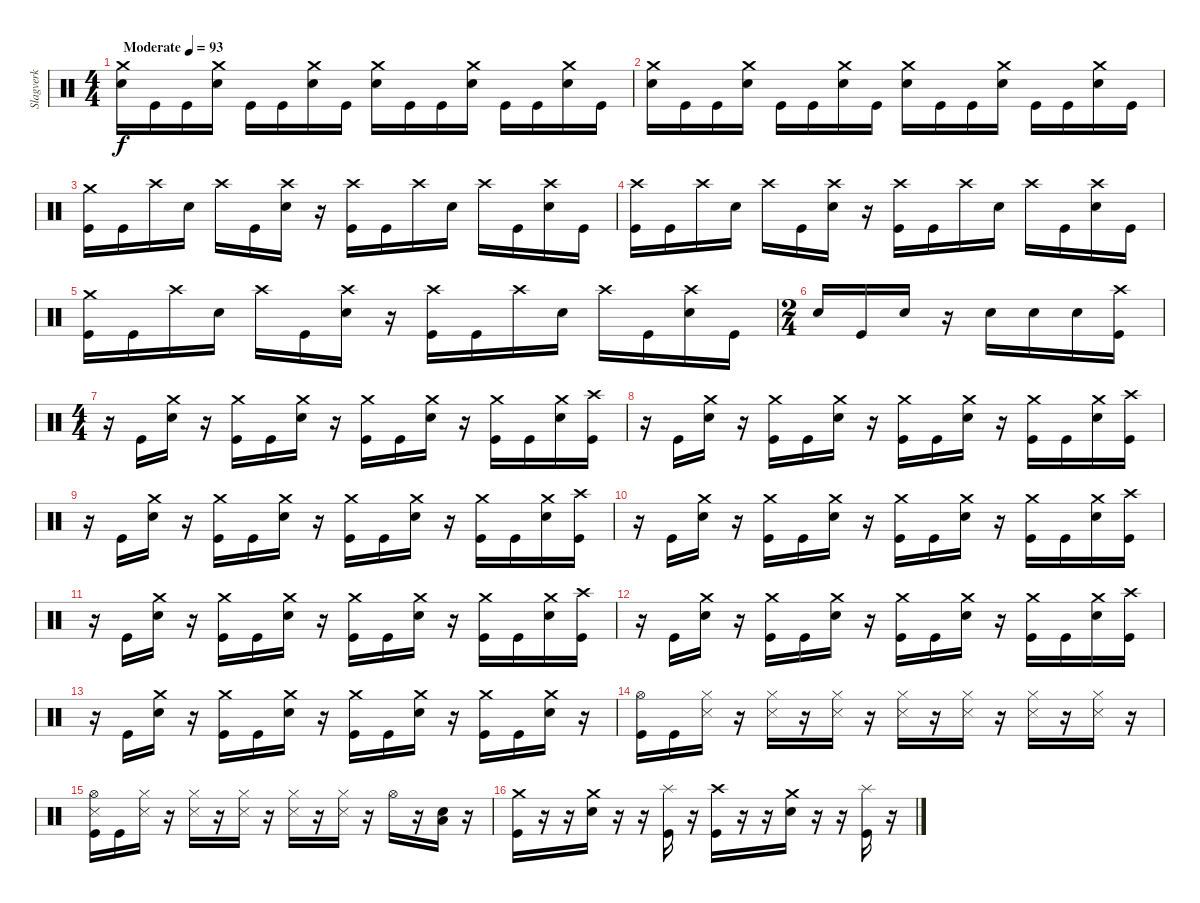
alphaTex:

\track ("Slagverk" "Slagverk") {instrument percussion}
\staff {score}
\articulation defaults
\ts (4 4)
\tempo (93 "Moderate")
\clef neutral
\ks c
("Crash medium (hit)" "Electric Snare (hit)").16{dy f} "Kick (hit)".16 "Kick (hit)".16 ("Crash medium (hit)" "Electric Snare (hit)").16 "Kick (hit)".16 "Kick (hit)".16 ("Crash medium (hit)" "Electric Snare (hit)").16 "Kick (hit)".16 ("Crash medium (hit)" "Electric Snare (hit)").16 "Kick (hit)".16 "Kick (hit)".16 ("Crash medium (hit)" "Electric Snare (hit)").16 "Kick (hit)".16 "Kick (hit)".16 ("Crash medium (hit)" "Electric Snare (hit)").16 "Kick (hit)".16 |
("Crash medium (hit)" "Electric Snare (hit)").16 "Kick (hit)".16 "Kick (hit)".16 ("Crash medium (hit)" "Electric Snare (hit)").16 "Kick (hit)".16 "Kick (hit)".16 ("Crash medium (hit)" "Electric Snare (hit)").16 "Kick (hit)".16 ("Crash medium (hit)" "Electric Snare (hit)").16 "Kick (hit)".16 "Kick (hit)".16 ("Crash medium (hit)" "Electric Snare (hit)").16 "Kick (hit)".16 "Kick (hit)".16 ("Crash medium (hit)" "Electric Snare (hit)").16 "Kick (hit)".16 |
("Crash medium (hit)" "Kick (hit)").16 "Kick (hit)".16 "Crash high (hit)".16 "Electric Snare (hit)".16 "Crash high (hit)".16 "Kick (hit)".16 ("Crash high (hit)" "Electric Snare (hit)").16 r.16 ("Crash high (hit)" "Kick (hit)").16 "Kick (hit)".16 "Crash high (hit)".16 "Electric Snare (hit)".16 "Crash high (hit)".16 "Kick (hit)".16 ("Crash high (hit)" "Electric Snare (hit)").16 "Kick (hit)".16 |
("Crash high (hit)" "Kick (hit)").16 "Kick (hit)".16 "Crash high (hit)".16 "Electric Snare (hit)".16 "Crash high (hit)".16 "Kick (hit)".16 ("Crash high (hit)" "Electric Snare (hit)").16 r.16 ("Crash high (hit)" "Kick (hit)").16 "Kick (hit)".16 "Crash high (hit)".16 "Electric Snare (hit)".16 "Crash high (hit)".16 "Kick (hit)".16 ("Crash high (hit)" "Electric Snare (hit)").16 "Kick (hit)".16 |
("Crash medium (hit)" "Kick (hit)").16 "Kick (hit)".16 "Crash high (hit)".16 "Electric Snare (hit)".16 "Crash high (hit)".16 "Kick (hit)".16 ("Crash high (hit)" "Electric Snare (hit)").16 r.16 ("Crash high (hit)" "Kick (hit)").16 "Kick (hit)".16 "Crash high (hit)".16 "Electric Snare (hit)".16 "Crash high (hit)".16 "Kick (hit)".16 ("Crash high (hit)" "Electric Snare (hit)").16 "Kick (hit)".16 |
\ts (2 4)
"Electric Snare (hit)".16 "Kick (hit)".16 "Electric Snare (hit)".16 r.16 "Electric Snare (hit)".16 "Electric Snare (hit)".16 "Electric Snare (hit)".16 ("Crash high (hit)" "Kick (hit)").16 |
\ts (4 4)
r.16 "Kick (hit)".16 ("Crash medium (hit)" "Electric Snare (hit)").16 r.16 ("Crash medium (hit)" "Kick (hit)").16 "Kick (hit)".16 ("Crash medium (hit)" "Electric Snare (hit)").16 r.16 ("Crash medium (hit)" "Kick (hit)").16 "Kick (hit)".16 ("Crash medium (hit)" "Electric Snare (hit)").16 r.16 ("Crash medium (hit)" "Kick (hit)").16 "Kick (hit)".16 ("Crash medium (hit)" "Electric Snare (hit)").16 ("Crash high (hit)" "Kick (hit)").16 |
r.16 "Kick (hit)".16 ("Crash medium (hit)" "Electric Snare (hit)").16 r.16 ("Crash medium (hit)" "Kick (hit)").16 "Kick (hit)".16 ("Crash medium (hit)" "Electric Snare (hit)").16 r.16 ("Crash medium (hit)" "Kick (hit)").16 "Kick (hit)".16 ("Crash medium (hit)" "Electric Snare (hit)").16 r.16 ("Crash medium (hit)" "Kick (hit)").16 "Kick (hit)".16 ("Crash medium (hit)" "Electric Snare (hit)").16 ("Crash high (hit)" "Kick (hit)").16 |
r.16 "Kick (hit)".16 ("Crash medium (hit)" "Electric Snare (hit)").16 r.16 ("Crash medium (hit)" "Kick (hit)").16 "Kick (hit)".16 ("Crash medium (hit)" "Electric Snare (hit)").16 r.16 ("Crash medium (hit)" "Kick (hit)").16 "Kick (hit)".16 ("Crash medium (hit)" "Electric Snare (hit)").16 r.16 ("Crash medium (hit)" "Kick (hit)").16 "Kick (hit)".16 ("Crash medium (hit)" "Electric Snare (hit)").16 ("Crash high (hit)" "Kick (hit)").16 |
r.16 "Kick (hit)".16 ("Crash medium (hit)" "Electric Snare (hit)").16 r.16 ("Crash medium (hit)" "Kick (hit)").16 "Kick (hit)".16 ("Crash medium (hit)" "Electric Snare (hit)").16 r.16 ("Crash medium (hit)" "Kick (hit)").16 "Kick (hit)".16 ("Crash medium (hit)" "Electric Snare (hit)").16 r.16 ("Crash medium (hit)" "Kick (hit)").16 "Kick (hit)".16 ("Crash medium (hit)" "Electric Snare (hit)").16 ("Crash high (hit)" "Kick (hit)").16 |
r.16 "Kick (hit)".16 ("Crash medium (hit)" "Electric Snare (hit)").16 r.16 ("Crash medium (hit)" "Kick (hit)").16 "Kick (hit)".16 ("Crash medium (hit)" "Electric Snare (hit)").16 r.16 ("Crash medium (hit)" "Kick (hit)").16 "Kick (hit)".16 ("Crash medium (hit)" "Electric Snare (hit)").16 r.16 ("Crash medium (hit)" "Kick (hit)").16 "Kick (hit)".16 ("Crash medium (hit)" "Electric Snare (hit)").16 ("Crash high (hit)" "Kick (hit)").16 |
r.16 "Kick (hit)".16 ("Crash medium (hit)" "Electric Snare (hit)").16 r.16 ("Crash medium (hit)" "Kick (hit)").16 "Kick (hit)".16 ("Crash medium (hit)" "Electric Snare (hit)").16 r.16 ("Crash medium (hit)" "Kick (hit)").16 "Kick (hit)".16 ("Crash medium (hit)" "Electric Snare (hit)").16 r.16 ("Crash medium (hit)" "Kick (hit)").16 "Kick (hit)".16 ("Crash medium (hit)" "Electric Snare (hit)").16 ("Crash high (hit)" "Kick (hit)").16 |
r.16 "Kick (hit)".16 ("Crash medium (hit)" "Electric Snare (hit)").16 r.16 ("Crash medium (hit)" "Kick (hit)").16 "Kick (hit)".16 ("Crash medium (hit)" "Electric Snare (hit)").16 r.16 ("Crash medium (hit)" "Kick (hit)").16 "Kick (hit)".16 ("Crash medium (hit)" "Electric Snare (hit)").16 r.16 ("Crash medium (hit)" "Kick (hit)").16 "Kick (hit)".16 ("Crash medium (hit)" "Electric Snare (hit)").16 r.16 |
("Hi-Hat (open)" "Kick (hit)").16 "Kick (hit)".16 ("Hi-Hat (closed)" "Snare (side stick) 3").16 r.16 ("Hi-Hat (closed)" "Snare (side stick) 3").16 r.16 ("Hi-Hat (closed)" "Snare (side stick) 3").16 r.16 ("Hi-Hat (closed)" "Snare (side stick) 3").16 r.16 ("Hi-Hat (closed)" "Snare (side stick) 3").16 r.16 ("Hi-Hat (closed)" "Snare (side stick) 3").16 r.16 ("Hi-Hat (closed)" "Snare (side stick) 3").16 r.16 |
("Hi-Hat (open)" "Snare (side stick) 3" "Kick (hit)").16 "Kick (hit)".16 ("Hi-Hat (closed)" "Snare (side stick) 3").16 r.16 ("Hi-Hat (closed)" "Snare (side stick) 3").16 r.16 ("Hi-Hat (closed)" "Snare (side stick) 3").16 r.16 ("Hi-Hat (closed)" "Snare (side stick) 3").16 r.16 ("Hi-Hat (closed)" "Snare (side stick) 3").16 r.16 "Hi-Hat (open)".16 r.16 ("Electric Snare (hit)" "Low Tom (hit)").16 r.16 |
("Crash medium (hit)" "Kick (hit)").16 r.16 r.16 ("Crash medium (hit)" "Electric Snare (hit)").16 r.16 r.16 ("Splash (hit)" "Kick (hit)").16 r.16 ("Crash high (hit)" "Kick (hit)").16 r.16 r.16 ("Crash medium (hit)" "Electric Snare (hit)").16 r.16 r.16 ("Splash (hit)" "Kick (hit)").16 r.16
